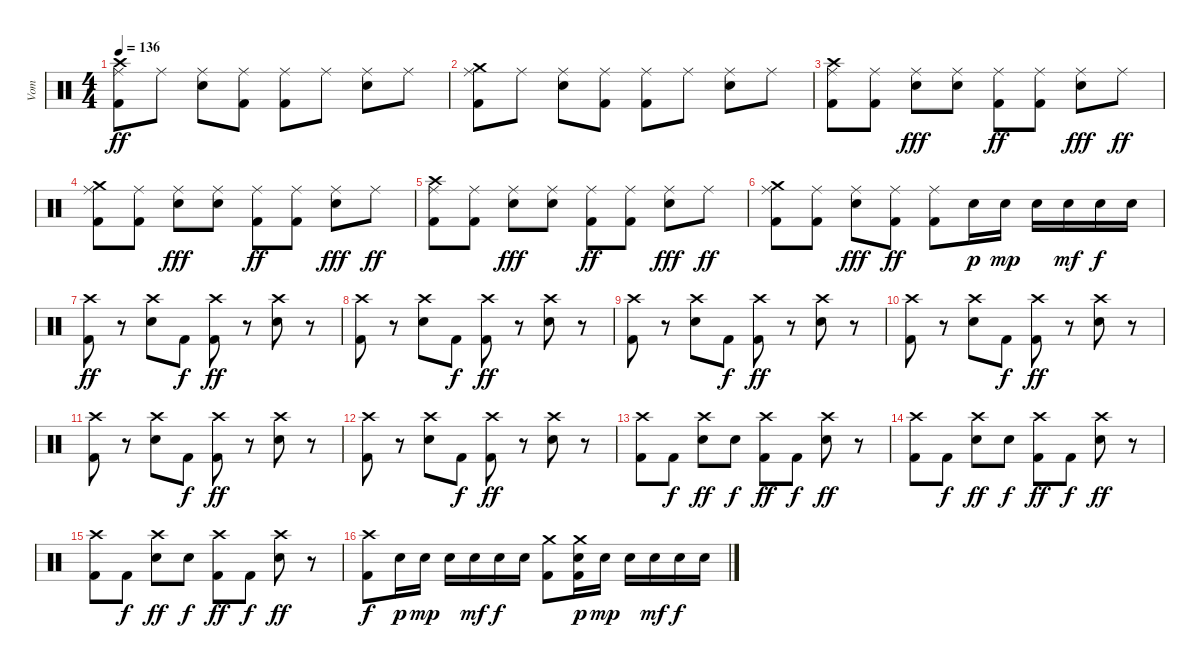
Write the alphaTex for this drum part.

\track ("Vom" "Vom") {instrument percussion}
\staff {score}
\articulation defaults
\ts (4 4)
\tempo 136
\clef neutral
\ks c
("Ride (middle)" "Kick (hit) 2" "Crash high (hit)").8{dy ff} "Ride (middle)".8 ("Ride (middle)" "Snare (hit) 2").8 ("Ride (middle)" "Kick (hit) 2").8 ("Ride (middle)" "Kick (hit) 2").8 "Ride (middle)".8 ("Ride (middle)" "Snare (hit) 2").8 "Ride (middle)".8 |
("Ride (middle)" "Kick (hit) 2" "Crash medium (hit)").8 "Ride (middle)".8 ("Ride (middle)" "Snare (hit) 2").8 ("Ride (middle)" "Kick (hit) 2").8 ("Ride (middle)" "Kick (hit) 2").8 "Ride (middle)".8 ("Ride (middle)" "Snare (hit) 2").8 "Ride (middle)".8 |
("Ride (middle)" "Kick (hit) 2" "Crash high (hit)").8 ("Ride (middle)" "Kick (hit) 2").8 ("Ride (middle)" "Snare (hit) 2").8{dy fff} ("Ride (middle)" "Snare (hit) 2").8 ("Ride (middle)" "Kick (hit) 2").8{dy ff} ("Ride (middle)" "Kick (hit) 2").8 ("Ride (middle)" "Snare (hit) 2").8{dy fff} "Ride (middle)".8{dy ff} |
("Ride (middle)" "Kick (hit) 2" "Crash medium (hit)").8 ("Ride (middle)" "Kick (hit) 2").8 ("Ride (middle)" "Snare (hit) 2").8{dy fff} ("Ride (middle)" "Snare (hit) 2").8 ("Ride (middle)" "Kick (hit) 2").8{dy ff} ("Ride (middle)" "Kick (hit) 2").8 ("Ride (middle)" "Snare (hit) 2").8{dy fff} "Ride (middle)".8{dy ff} |
("Ride (middle)" "Kick (hit) 2" "Crash high (hit)").8 ("Ride (middle)" "Kick (hit) 2").8 ("Ride (middle)" "Snare (hit) 2").8{dy fff} ("Ride (middle)" "Snare (hit) 2").8 ("Ride (middle)" "Kick (hit) 2").8{dy ff} ("Ride (middle)" "Kick (hit) 2").8 ("Ride (middle)" "Snare (hit) 2").8{dy fff} "Ride (middle)".8{dy ff} |
("Ride (middle)" "Kick (hit) 2" "Crash medium (hit)").8 ("Ride (middle)" "Kick (hit) 2").8 ("Ride (middle)" "Snare (hit) 2").8{dy fff} ("Ride (middle)" "Kick (hit) 2").8{dy ff} ("Ride (middle)" "Kick (hit) 2").8 "Snare (hit) 2".16{dy p} "Snare (hit) 2".16{dy mp} "Snare (hit) 2".16 "Snare (hit) 2".16{dy mf} "Snare (hit) 2".16{dy f} "Snare (hit) 2".16 |
("Crash high (hit)" "Kick (hit) 2").8{dy ff} r.8 ("Crash high (hit)" "Snare (hit) 2").8 "Kick (hit) 2".8{dy f} ("Crash high (hit)" "Kick (hit) 2").8{dy ff} r.8 ("Crash high (hit)" "Snare (hit) 2").8 r.8 |
("Crash high (hit)" "Kick (hit) 2").8 r.8 ("Crash high (hit)" "Snare (hit) 2").8 "Kick (hit) 2".8{dy f} ("Crash high (hit)" "Kick (hit) 2").8{dy ff} r.8 ("Crash high (hit)" "Snare (hit) 2").8 r.8 |
("Crash high (hit)" "Kick (hit) 2").8 r.8 ("Crash high (hit)" "Snare (hit) 2").8 "Kick (hit) 2".8{dy f} ("Crash high (hit)" "Kick (hit) 2").8{dy ff} r.8 ("Crash high (hit)" "Snare (hit) 2").8 r.8 |
("Crash high (hit)" "Kick (hit) 2").8 r.8 ("Crash high (hit)" "Snare (hit) 2").8 "Kick (hit) 2".8{dy f} ("Crash high (hit)" "Kick (hit) 2").8{dy ff} r.8 ("Crash high (hit)" "Snare (hit) 2").8 r.8 |
("Crash high (hit)" "Kick (hit) 2").8 r.8 ("Crash high (hit)" "Snare (hit) 2").8 "Kick (hit) 2".8{dy f} ("Crash high (hit)" "Kick (hit) 2").8{dy ff} r.8 ("Crash high (hit)" "Snare (hit) 2").8 r.8 |
("Crash high (hit)" "Kick (hit) 2").8 r.8 ("Crash high (hit)" "Snare (hit) 2").8 "Kick (hit) 2".8{dy f} ("Crash high (hit)" "Kick (hit) 2").8{dy ff} r.8 ("Crash high (hit)" "Snare (hit) 2").8 r.8 |
("Crash high (hit)" "Kick (hit) 2").8 "Kick (hit) 2".8{dy f} ("Crash high (hit)" "Snare (hit) 2").8{dy ff} "Snare (hit) 2".8{dy f} ("Crash high (hit)" "Kick (hit) 2").8{dy ff} "Kick (hit) 2".8{dy f} ("Crash high (hit)" "Snare (hit) 2").8{dy ff} r.8 |
("Crash high (hit)" "Kick (hit) 2").8 "Kick (hit) 2".8{dy f} ("Crash high (hit)" "Snare (hit) 2").8{dy ff} "Snare (hit) 2".8{dy f} ("Crash high (hit)" "Kick (hit) 2").8{dy ff} "Kick (hit) 2".8{dy f} ("Crash high (hit)" "Snare (hit) 2").8{dy ff} r.8 |
("Crash high (hit)" "Kick (hit) 2").8 "Kick (hit) 2".8{dy f} ("Crash high (hit)" "Snare (hit) 2").8{dy ff} "Snare (hit) 2".8{dy f} ("Crash high (hit)" "Kick (hit) 2").8{dy ff} "Kick (hit) 2".8{dy f} ("Crash high (hit)" "Snare (hit) 2").8{dy ff} r.8 |
("Kick (hit) 2" "Crash high (hit)").8{dy f} "Snare (hit) 2".16{dy p} "Snare (hit) 2".16{dy mp} "Snare (hit) 2".16 "Snare (hit) 2".16{dy mf} "Snare (hit) 2".16{dy f} "Snare (hit) 2".16 ("Kick (hit) 2" "Crash medium (hit)").8 ("Kick (hit) 2" "Snare (hit) 2" "Crash medium (hit)").16{dy p} "Snare (hit) 2".16{dy mp} "Snare (hit) 2".16 "Snare (hit) 2".16{dy mf} "Snare (hit) 2".16{dy f} "Snare (hit) 2".16
